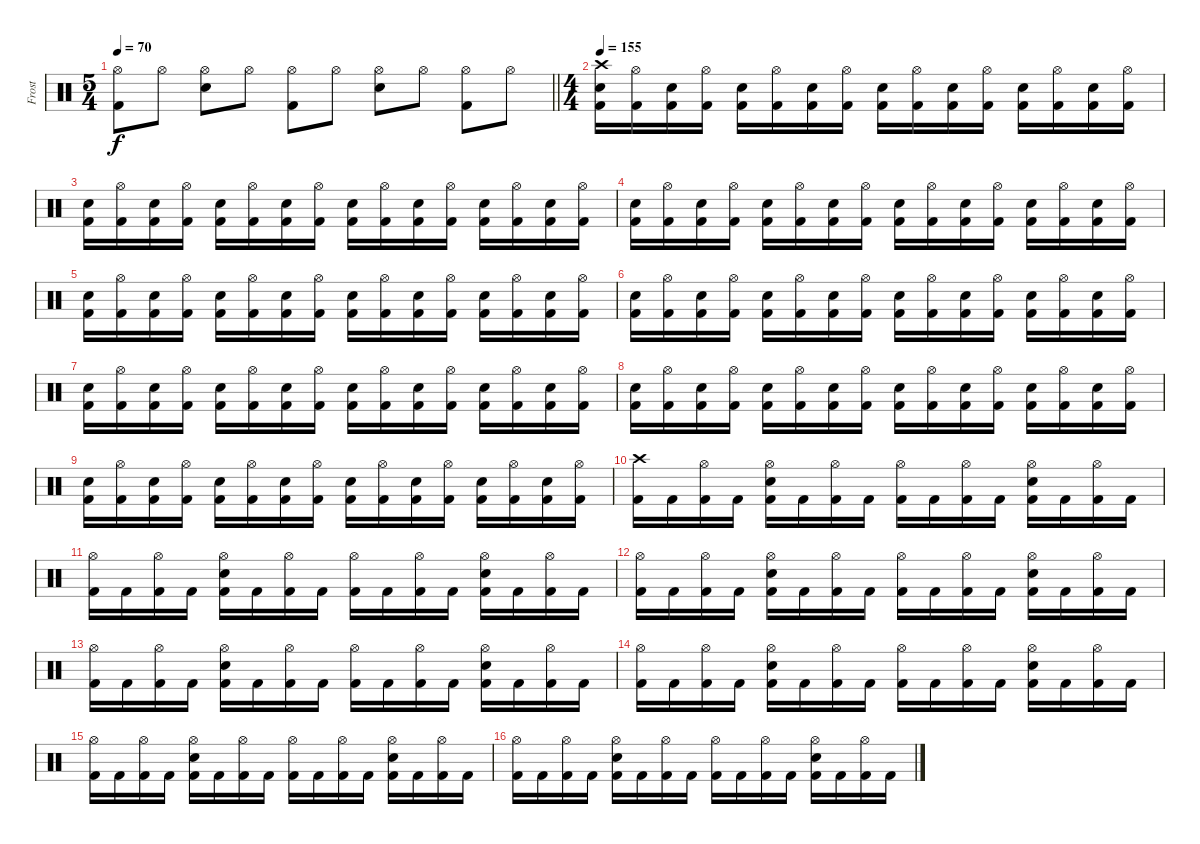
\track ("Frost" "Frost") {instrument percussion}
\staff {score}
\articulation defaults
\ts (5 4)
\tempo 70
\clef neutral
\barLineRight lightlight
\ks c
("Hi-Hat (open)" "Kick (hit) 2").8{dy f} "Hi-Hat (open)".8 ("Hi-Hat (open)" "Electric Snare (hit)").8 "Hi-Hat (open)".8 ("Hi-Hat (open)" "Kick (hit) 2").8 "Hi-Hat (open)".8 ("Hi-Hat (open)" "Electric Snare (hit)").8 "Hi-Hat (open)".8 ("Hi-Hat (open)" "Kick (hit) 2").8 "Hi-Hat (open)".8 |
\ts (4 4)
\section ("" "")
\tempo 155
("Crash high (hit)" "Electric Snare (hit)" "Kick (hit) 2").16 ("Hi-Hat (open)" "Kick (hit) 2").16 ("Electric Snare (hit)" "Kick (hit) 2").16 ("Hi-Hat (open)" "Kick (hit) 2").16 ("Electric Snare (hit)" "Kick (hit) 2").16 ("Hi-Hat (open)" "Kick (hit) 2").16 ("Electric Snare (hit)" "Kick (hit) 2").16 ("Hi-Hat (open)" "Kick (hit) 2").16 ("Electric Snare (hit)" "Kick (hit) 2").16 ("Hi-Hat (open)" "Kick (hit) 2").16 ("Electric Snare (hit)" "Kick (hit) 2").16 ("Hi-Hat (open)" "Kick (hit) 2").16 ("Electric Snare (hit)" "Kick (hit) 2").16 ("Hi-Hat (open)" "Kick (hit) 2").16 ("Electric Snare (hit)" "Kick (hit) 2").16 ("Hi-Hat (open)" "Kick (hit) 2").16 |
("Electric Snare (hit)" "Kick (hit) 2").16 ("Hi-Hat (open)" "Kick (hit) 2").16 ("Electric Snare (hit)" "Kick (hit) 2").16 ("Hi-Hat (open)" "Kick (hit) 2").16 ("Electric Snare (hit)" "Kick (hit) 2").16 ("Hi-Hat (open)" "Kick (hit) 2").16 ("Electric Snare (hit)" "Kick (hit) 2").16 ("Hi-Hat (open)" "Kick (hit) 2").16 ("Electric Snare (hit)" "Kick (hit) 2").16 ("Hi-Hat (open)" "Kick (hit) 2").16 ("Electric Snare (hit)" "Kick (hit) 2").16 ("Hi-Hat (open)" "Kick (hit) 2").16 ("Electric Snare (hit)" "Kick (hit) 2").16 ("Hi-Hat (open)" "Kick (hit) 2").16 ("Electric Snare (hit)" "Kick (hit) 2").16 ("Hi-Hat (open)" "Kick (hit) 2").16 |
("Electric Snare (hit)" "Kick (hit) 2").16 ("Hi-Hat (open)" "Kick (hit) 2").16 ("Electric Snare (hit)" "Kick (hit) 2").16 ("Hi-Hat (open)" "Kick (hit) 2").16 ("Electric Snare (hit)" "Kick (hit) 2").16 ("Hi-Hat (open)" "Kick (hit) 2").16 ("Electric Snare (hit)" "Kick (hit) 2").16 ("Hi-Hat (open)" "Kick (hit) 2").16 ("Electric Snare (hit)" "Kick (hit) 2").16 ("Hi-Hat (open)" "Kick (hit) 2").16 ("Electric Snare (hit)" "Kick (hit) 2").16 ("Hi-Hat (open)" "Kick (hit) 2").16 ("Electric Snare (hit)" "Kick (hit) 2").16 ("Hi-Hat (open)" "Kick (hit) 2").16 ("Electric Snare (hit)" "Kick (hit) 2").16 ("Hi-Hat (open)" "Kick (hit) 2").16 |
("Electric Snare (hit)" "Kick (hit) 2").16 ("Hi-Hat (open)" "Kick (hit) 2").16 ("Electric Snare (hit)" "Kick (hit) 2").16 ("Hi-Hat (open)" "Kick (hit) 2").16 ("Electric Snare (hit)" "Kick (hit) 2").16 ("Hi-Hat (open)" "Kick (hit) 2").16 ("Electric Snare (hit)" "Kick (hit) 2").16 ("Hi-Hat (open)" "Kick (hit) 2").16 ("Electric Snare (hit)" "Kick (hit) 2").16 ("Hi-Hat (open)" "Kick (hit) 2").16 ("Electric Snare (hit)" "Kick (hit) 2").16 ("Hi-Hat (open)" "Kick (hit) 2").16 ("Electric Snare (hit)" "Kick (hit) 2").16 ("Hi-Hat (open)" "Kick (hit) 2").16 ("Electric Snare (hit)" "Kick (hit) 2").16 ("Hi-Hat (open)" "Kick (hit) 2").16 |
("Electric Snare (hit)" "Kick (hit) 2").16 ("Hi-Hat (open)" "Kick (hit) 2").16 ("Electric Snare (hit)" "Kick (hit) 2").16 ("Hi-Hat (open)" "Kick (hit) 2").16 ("Electric Snare (hit)" "Kick (hit) 2").16 ("Hi-Hat (open)" "Kick (hit) 2").16 ("Electric Snare (hit)" "Kick (hit) 2").16 ("Hi-Hat (open)" "Kick (hit) 2").16 ("Electric Snare (hit)" "Kick (hit) 2").16 ("Hi-Hat (open)" "Kick (hit) 2").16 ("Electric Snare (hit)" "Kick (hit) 2").16 ("Hi-Hat (open)" "Kick (hit) 2").16 ("Electric Snare (hit)" "Kick (hit) 2").16 ("Hi-Hat (open)" "Kick (hit) 2").16 ("Electric Snare (hit)" "Kick (hit) 2").16 ("Hi-Hat (open)" "Kick (hit) 2").16 |
("Electric Snare (hit)" "Kick (hit) 2").16 ("Hi-Hat (open)" "Kick (hit) 2").16 ("Electric Snare (hit)" "Kick (hit) 2").16 ("Hi-Hat (open)" "Kick (hit) 2").16 ("Electric Snare (hit)" "Kick (hit) 2").16 ("Hi-Hat (open)" "Kick (hit) 2").16 ("Electric Snare (hit)" "Kick (hit) 2").16 ("Hi-Hat (open)" "Kick (hit) 2").16 ("Electric Snare (hit)" "Kick (hit) 2").16 ("Hi-Hat (open)" "Kick (hit) 2").16 ("Electric Snare (hit)" "Kick (hit) 2").16 ("Hi-Hat (open)" "Kick (hit) 2").16 ("Electric Snare (hit)" "Kick (hit) 2").16 ("Hi-Hat (open)" "Kick (hit) 2").16 ("Electric Snare (hit)" "Kick (hit) 2").16 ("Hi-Hat (open)" "Kick (hit) 2").16 |
("Electric Snare (hit)" "Kick (hit) 2").16 ("Hi-Hat (open)" "Kick (hit) 2").16 ("Electric Snare (hit)" "Kick (hit) 2").16 ("Hi-Hat (open)" "Kick (hit) 2").16 ("Electric Snare (hit)" "Kick (hit) 2").16 ("Hi-Hat (open)" "Kick (hit) 2").16 ("Electric Snare (hit)" "Kick (hit) 2").16 ("Hi-Hat (open)" "Kick (hit) 2").16 ("Electric Snare (hit)" "Kick (hit) 2").16 ("Hi-Hat (open)" "Kick (hit) 2").16 ("Electric Snare (hit)" "Kick (hit) 2").16 ("Hi-Hat (open)" "Kick (hit) 2").16 ("Electric Snare (hit)" "Kick (hit) 2").16 ("Hi-Hat (open)" "Kick (hit) 2").16 ("Electric Snare (hit)" "Kick (hit) 2").16 ("Hi-Hat (open)" "Kick (hit) 2").16 |
("Electric Snare (hit)" "Kick (hit) 2").16 ("Hi-Hat (open)" "Kick (hit) 2").16 ("Electric Snare (hit)" "Kick (hit) 2").16 ("Hi-Hat (open)" "Kick (hit) 2").16 ("Electric Snare (hit)" "Kick (hit) 2").16 ("Hi-Hat (open)" "Kick (hit) 2").16 ("Electric Snare (hit)" "Kick (hit) 2").16 ("Hi-Hat (open)" "Kick (hit) 2").16 ("Electric Snare (hit)" "Kick (hit) 2").16 ("Hi-Hat (open)" "Kick (hit) 2").16 ("Electric Snare (hit)" "Kick (hit) 2").16 ("Hi-Hat (open)" "Kick (hit) 2").16 ("Electric Snare (hit)" "Kick (hit) 2").16 ("Hi-Hat (open)" "Kick (hit) 2").16 ("Electric Snare (hit)" "Kick (hit) 2").16 ("Hi-Hat (open)" "Kick (hit) 2").16 |
("Crash high (hit)" "Kick (hit) 2").16 "Kick (hit) 2".16 ("Hi-Hat (open)" "Kick (hit) 2").16 "Kick (hit) 2".16 ("Hi-Hat (open)" "Electric Snare (hit)" "Kick (hit) 2").16 "Kick (hit) 2".16 ("Hi-Hat (open)" "Kick (hit) 2").16 "Kick (hit) 2".16 ("Hi-Hat (open)" "Kick (hit) 2").16 "Kick (hit) 2".16 ("Hi-Hat (open)" "Kick (hit) 2").16 "Kick (hit) 2".16 ("Hi-Hat (open)" "Electric Snare (hit)" "Kick (hit) 2").16 "Kick (hit) 2".16 ("Hi-Hat (open)" "Kick (hit) 2").16 "Kick (hit) 2".16 |
("Hi-Hat (open)" "Kick (hit) 2").16 "Kick (hit) 2".16 ("Hi-Hat (open)" "Kick (hit) 2").16 "Kick (hit) 2".16 ("Hi-Hat (open)" "Electric Snare (hit)" "Kick (hit) 2").16 "Kick (hit) 2".16 ("Hi-Hat (open)" "Kick (hit) 2").16 "Kick (hit) 2".16 ("Hi-Hat (open)" "Kick (hit) 2").16 "Kick (hit) 2".16 ("Hi-Hat (open)" "Kick (hit) 2").16 "Kick (hit) 2".16 ("Hi-Hat (open)" "Electric Snare (hit)" "Kick (hit) 2").16 "Kick (hit) 2".16 ("Hi-Hat (open)" "Kick (hit) 2").16 "Kick (hit) 2".16 |
("Hi-Hat (open)" "Kick (hit) 2").16 "Kick (hit) 2".16 ("Hi-Hat (open)" "Kick (hit) 2").16 "Kick (hit) 2".16 ("Hi-Hat (open)" "Electric Snare (hit)" "Kick (hit) 2").16 "Kick (hit) 2".16 ("Hi-Hat (open)" "Kick (hit) 2").16 "Kick (hit) 2".16 ("Hi-Hat (open)" "Kick (hit) 2").16 "Kick (hit) 2".16 ("Hi-Hat (open)" "Kick (hit) 2").16 "Kick (hit) 2".16 ("Hi-Hat (open)" "Electric Snare (hit)" "Kick (hit) 2").16 "Kick (hit) 2".16 ("Hi-Hat (open)" "Kick (hit) 2").16 "Kick (hit) 2".16 |
("Hi-Hat (open)" "Kick (hit) 2").16 "Kick (hit) 2".16 ("Hi-Hat (open)" "Kick (hit) 2").16 "Kick (hit) 2".16 ("Hi-Hat (open)" "Electric Snare (hit)" "Kick (hit) 2").16 "Kick (hit) 2".16 ("Hi-Hat (open)" "Kick (hit) 2").16 "Kick (hit) 2".16 ("Hi-Hat (open)" "Kick (hit) 2").16 "Kick (hit) 2".16 ("Hi-Hat (open)" "Kick (hit) 2").16 "Kick (hit) 2".16 ("Hi-Hat (open)" "Electric Snare (hit)" "Kick (hit) 2").16 "Kick (hit) 2".16 ("Hi-Hat (open)" "Kick (hit) 2").16 "Kick (hit) 2".16 |
("Hi-Hat (open)" "Kick (hit) 2").16 "Kick (hit) 2".16 ("Hi-Hat (open)" "Kick (hit) 2").16 "Kick (hit) 2".16 ("Hi-Hat (open)" "Electric Snare (hit)" "Kick (hit) 2").16 "Kick (hit) 2".16 ("Hi-Hat (open)" "Kick (hit) 2").16 "Kick (hit) 2".16 ("Hi-Hat (open)" "Kick (hit) 2").16 "Kick (hit) 2".16 ("Hi-Hat (open)" "Kick (hit) 2").16 "Kick (hit) 2".16 ("Hi-Hat (open)" "Electric Snare (hit)" "Kick (hit) 2").16 "Kick (hit) 2".16 ("Hi-Hat (open)" "Kick (hit) 2").16 "Kick (hit) 2".16 |
("Hi-Hat (open)" "Kick (hit) 2").16 "Kick (hit) 2".16 ("Hi-Hat (open)" "Kick (hit) 2").16 "Kick (hit) 2".16 ("Hi-Hat (open)" "Electric Snare (hit)" "Kick (hit) 2").16 "Kick (hit) 2".16 ("Hi-Hat (open)" "Kick (hit) 2").16 "Kick (hit) 2".16 ("Hi-Hat (open)" "Kick (hit) 2").16 "Kick (hit) 2".16 ("Hi-Hat (open)" "Kick (hit) 2").16 "Kick (hit) 2".16 ("Hi-Hat (open)" "Electric Snare (hit)" "Kick (hit) 2").16 "Kick (hit) 2".16 ("Hi-Hat (open)" "Kick (hit) 2").16 "Kick (hit) 2".16 |
("Hi-Hat (open)" "Kick (hit) 2").16 "Kick (hit) 2".16 ("Hi-Hat (open)" "Kick (hit) 2").16 "Kick (hit) 2".16 ("Hi-Hat (open)" "Electric Snare (hit)" "Kick (hit) 2").16 "Kick (hit) 2".16 ("Hi-Hat (open)" "Kick (hit) 2").16 "Kick (hit) 2".16 ("Hi-Hat (open)" "Kick (hit) 2").16 "Kick (hit) 2".16 ("Hi-Hat (open)" "Kick (hit) 2").16 "Kick (hit) 2".16 ("Hi-Hat (open)" "Electric Snare (hit)" "Kick (hit) 2").16 "Kick (hit) 2".16 ("Hi-Hat (open)" "Kick (hit) 2").16 "Kick (hit) 2".16
